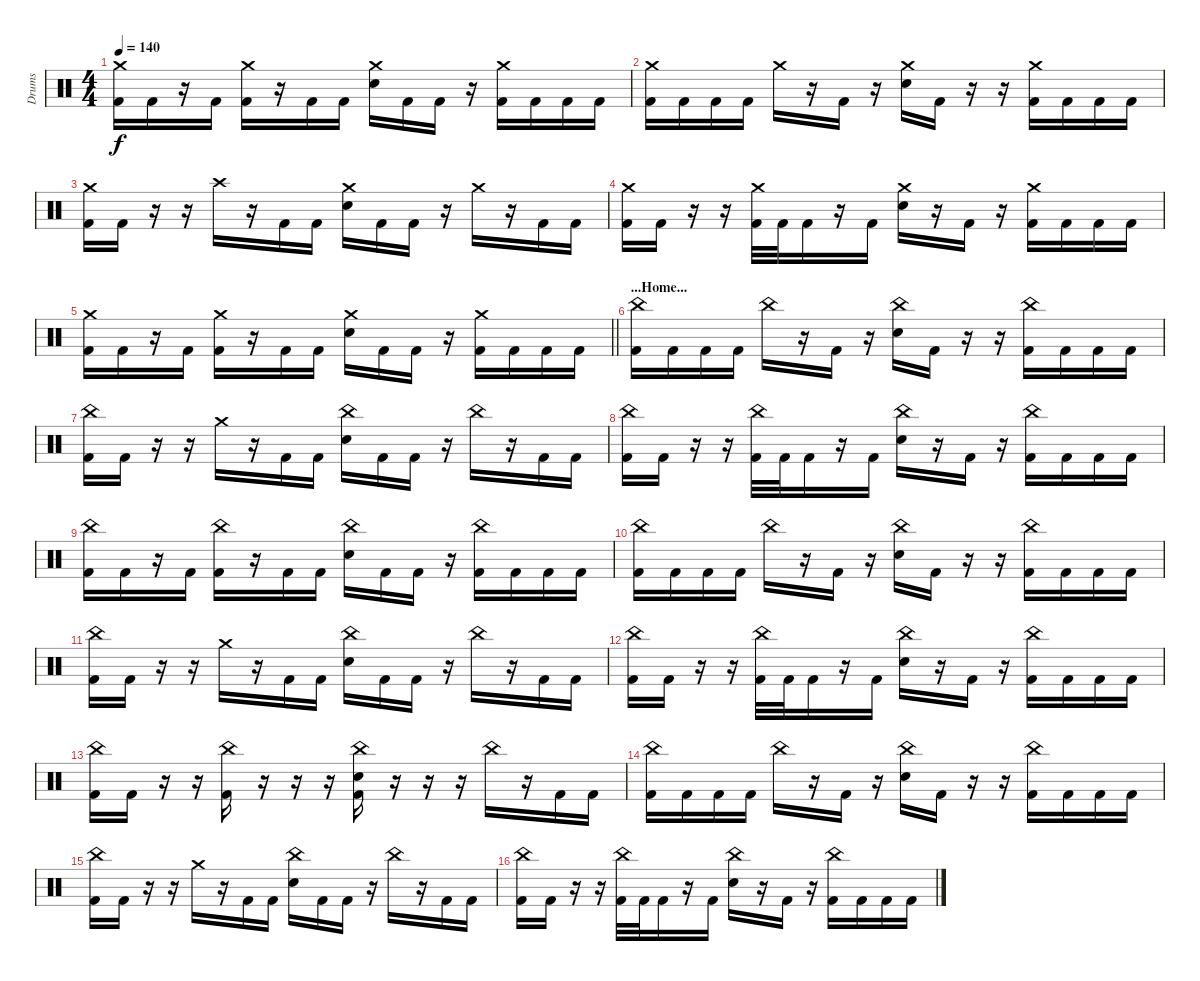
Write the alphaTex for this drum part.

\track ("Drums" "Drums") {instrument percussion}
\staff {score}
\articulation defaults
\ts (4 4)
\tempo 140
\clef neutral
\ks c
("Crash medium (hit)" "Kick (hit) 2").16{dy f} "Kick (hit) 2".16 r.16 "Kick (hit) 2".16 ("Crash medium (hit)" "Kick (hit) 2").16 r.16 "Kick (hit) 2".16 "Kick (hit) 2".16 ("Crash medium (hit)" "Snare (hit) 2").16 "Kick (hit) 2".16 "Kick (hit) 2".16 r.16 ("Crash medium (hit)" "Kick (hit) 2").16 "Kick (hit) 2".16 "Kick (hit) 2".16 "Kick (hit) 2".16 |
("Crash medium (hit)" "Kick (hit) 2").16 "Kick (hit) 2".16 "Kick (hit) 2".16 "Kick (hit) 2".16 "Crash medium (hit)".16 r.16 "Kick (hit) 2".16 r.16 ("Crash medium (hit)" "Snare (hit) 2").16 "Kick (hit) 2".16 r.16 r.16 ("Crash medium (hit)" "Kick (hit) 2").16 "Kick (hit) 2".16 "Kick (hit) 2".16 "Kick (hit) 2".16 |
("Crash medium (hit)" "Kick (hit) 2").16 "Kick (hit) 2".16 r.16 r.16 "Crash high (hit)".16 r.16 "Kick (hit) 2".16 "Kick (hit) 2".16 ("Crash medium (hit)" "Snare (hit) 2").16 "Kick (hit) 2".16 "Kick (hit) 2".16 r.16 "Crash medium (hit)".16 r.16 "Kick (hit) 2".16 "Kick (hit) 2".16 |
("Crash medium (hit)" "Kick (hit) 2").16 "Kick (hit) 2".16 r.16 r.16 ("Crash medium (hit)" "Kick (hit) 2").32 "Kick (hit) 2".32 "Kick (hit) 2".16 r.16 "Kick (hit) 2".16 ("Crash medium (hit)" "Snare (hit) 2").16 r.16 "Kick (hit) 2".16 r.16 ("Crash medium (hit)" "Kick (hit) 2").16 "Kick (hit) 2".16 "Kick (hit) 2".16 "Kick (hit) 2".16 |
\barLineRight lightlight
("Crash medium (hit)" "Kick (hit) 2").16 "Kick (hit) 2".16 r.16 "Kick (hit) 2".16 ("Crash medium (hit)" "Kick (hit) 2").16 r.16 "Kick (hit) 2".16 "Kick (hit) 2".16 ("Crash medium (hit)" "Snare (hit) 2").16 "Kick (hit) 2".16 "Kick (hit) 2".16 r.16 ("Crash medium (hit)" "Kick (hit) 2").16 "Kick (hit) 2".16 "Kick (hit) 2".16 "Kick (hit) 2".16 |
\section ("" "...Home...")
("China (hit)" "Kick (hit) 2").16 "Kick (hit) 2".16 "Kick (hit) 2".16 "Kick (hit) 2".16 "China (hit)".16 r.16 "Kick (hit) 2".16 r.16 ("China (hit)" "Snare (hit) 2").16 "Kick (hit) 2".16 r.16 r.16 ("China (hit)" "Kick (hit) 2").16 "Kick (hit) 2".16 "Kick (hit) 2".16 "Kick (hit) 2".16 |
("China (hit)" "Kick (hit) 2").16 "Kick (hit) 2".16 r.16 r.16 "Crash medium (hit)".16 r.16 "Kick (hit) 2".16 "Kick (hit) 2".16 ("China (hit)" "Snare (hit) 2").16 "Kick (hit) 2".16 "Kick (hit) 2".16 r.16 "China (hit)".16 r.16 "Kick (hit) 2".16 "Kick (hit) 2".16 |
("China (hit)" "Kick (hit) 2").16 "Kick (hit) 2".16 r.16 r.16 ("China (hit)" "Kick (hit) 2").32 "Kick (hit) 2".32 "Kick (hit) 2".16 r.16 "Kick (hit) 2".16 ("China (hit)" "Snare (hit) 2").16 r.16 "Kick (hit) 2".16 r.16 ("China (hit)" "Kick (hit) 2").16 "Kick (hit) 2".16 "Kick (hit) 2".16 "Kick (hit) 2".16 |
("China (hit)" "Kick (hit) 2").16 "Kick (hit) 2".16 r.16 "Kick (hit) 2".16 ("China (hit)" "Kick (hit) 2").16 r.16 "Kick (hit) 2".16 "Kick (hit) 2".16 ("China (hit)" "Snare (hit) 2").16 "Kick (hit) 2".16 "Kick (hit) 2".16 r.16 ("China (hit)" "Kick (hit) 2").16 "Kick (hit) 2".16 "Kick (hit) 2".16 "Kick (hit) 2".16 |
("China (hit)" "Kick (hit) 2").16 "Kick (hit) 2".16 "Kick (hit) 2".16 "Kick (hit) 2".16 "China (hit)".16 r.16 "Kick (hit) 2".16 r.16 ("China (hit)" "Snare (hit) 2").16 "Kick (hit) 2".16 r.16 r.16 ("China (hit)" "Kick (hit) 2").16 "Kick (hit) 2".16 "Kick (hit) 2".16 "Kick (hit) 2".16 |
("China (hit)" "Kick (hit) 2").16 "Kick (hit) 2".16 r.16 r.16 "Crash medium (hit)".16 r.16 "Kick (hit) 2".16 "Kick (hit) 2".16 ("China (hit)" "Snare (hit) 2").16 "Kick (hit) 2".16 "Kick (hit) 2".16 r.16 "China (hit)".16 r.16 "Kick (hit) 2".16 "Kick (hit) 2".16 |
("China (hit)" "Kick (hit) 2").16 "Kick (hit) 2".16 r.16 r.16 ("China (hit)" "Kick (hit) 2").32 "Kick (hit) 2".32 "Kick (hit) 2".16 r.16 "Kick (hit) 2".16 ("China (hit)" "Snare (hit) 2").16 r.16 "Kick (hit) 2".16 r.16 ("China (hit)" "Kick (hit) 2").16 "Kick (hit) 2".16 "Kick (hit) 2".16 "Kick (hit) 2".16 |
("China (hit)" "Kick (hit) 2").16 "Kick (hit) 2".16 r.16 r.16 ("China (hit)" "Kick (hit) 2").16 r.16 r.16 r.16 ("China (hit)" "Snare (hit) 2" "Kick (hit) 2").16 r.16 r.16 r.16 "China (hit)".16 r.16 "Kick (hit) 2".16 "Kick (hit) 2".16 |
("China (hit)" "Kick (hit) 2").16 "Kick (hit) 2".16 "Kick (hit) 2".16 "Kick (hit) 2".16 "China (hit)".16 r.16 "Kick (hit) 2".16 r.16 ("China (hit)" "Snare (hit) 2").16 "Kick (hit) 2".16 r.16 r.16 ("China (hit)" "Kick (hit) 2").16 "Kick (hit) 2".16 "Kick (hit) 2".16 "Kick (hit) 2".16 |
("China (hit)" "Kick (hit) 2").16 "Kick (hit) 2".16 r.16 r.16 "Crash medium (hit)".16 r.16 "Kick (hit) 2".16 "Kick (hit) 2".16 ("China (hit)" "Snare (hit) 2").16 "Kick (hit) 2".16 "Kick (hit) 2".16 r.16 "China (hit)".16 r.16 "Kick (hit) 2".16 "Kick (hit) 2".16 |
("China (hit)" "Kick (hit) 2").16 "Kick (hit) 2".16 r.16 r.16 ("China (hit)" "Kick (hit) 2").32 "Kick (hit) 2".32 "Kick (hit) 2".16 r.16 "Kick (hit) 2".16 ("China (hit)" "Snare (hit) 2").16 r.16 "Kick (hit) 2".16 r.16 ("China (hit)" "Kick (hit) 2").16 "Kick (hit) 2".16 "Kick (hit) 2".16 "Kick (hit) 2".16
